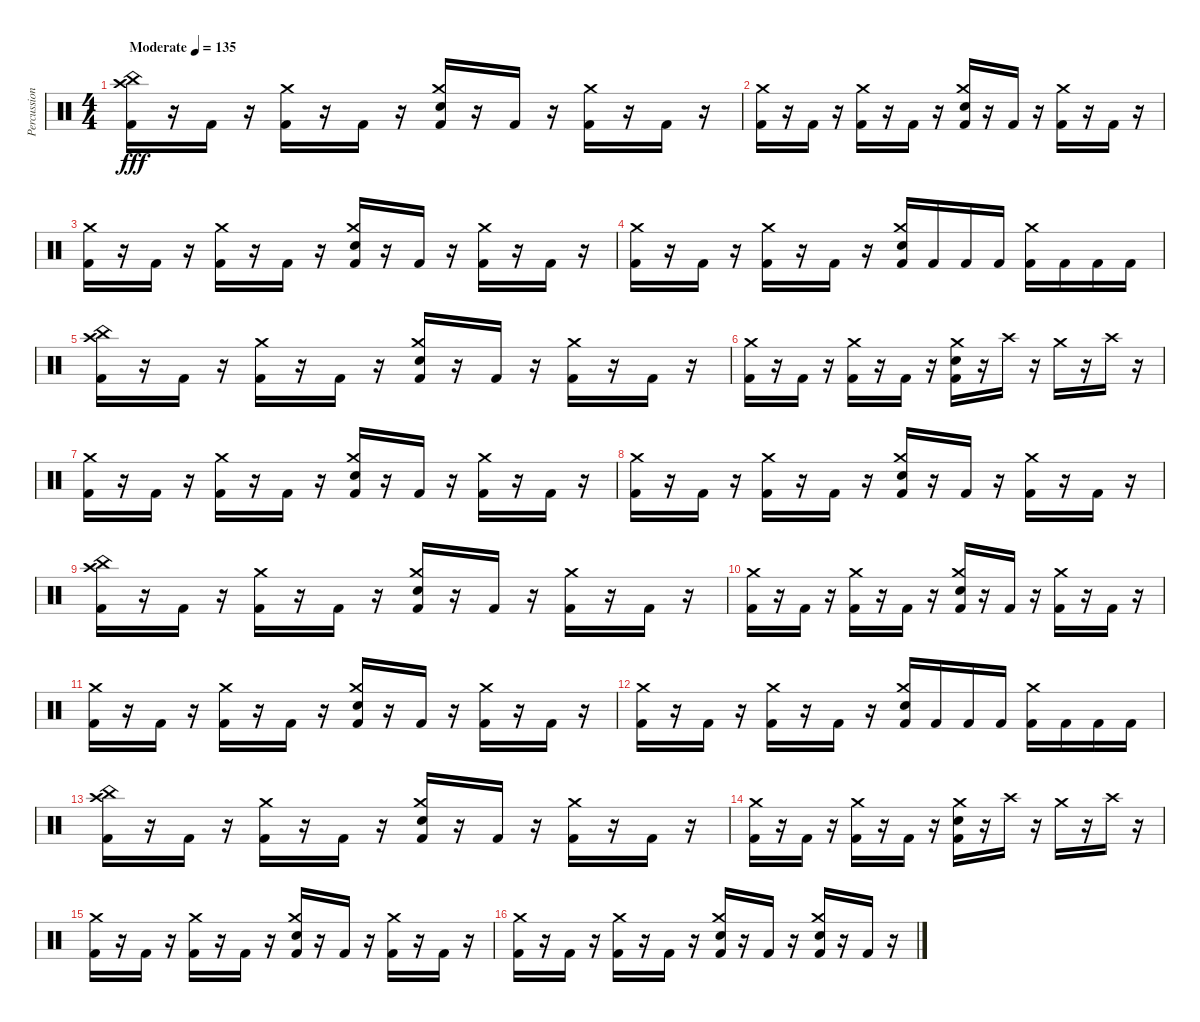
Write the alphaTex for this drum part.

\track ("Percussion" "Percussion") {instrument percussion}
\staff {score}
\articulation defaults
\ts (4 4)
\tempo (135 "Moderate")
\clef neutral
\ks c
("Crash high (hit)" "China (hit)" "Kick (hit) 2").16{dy fff} r.16 "Kick (hit) 2".16 r.16 ("Crash medium (hit)" "Kick (hit) 2").16 r.16 "Kick (hit) 2".16 r.16 ("Crash medium (hit)" "Snare (hit) 2" "Kick (hit) 2").16 r.16 "Kick (hit) 2".16 r.16 ("Crash medium (hit)" "Kick (hit) 2").16 r.16 "Kick (hit) 2".16 r.16 |
("Crash medium (hit)" "Kick (hit) 2").16 r.16 "Kick (hit) 2".16 r.16 ("Crash medium (hit)" "Kick (hit) 2").16 r.16 "Kick (hit) 2".16 r.16 ("Crash medium (hit)" "Snare (hit) 2" "Kick (hit) 2").16 r.16 "Kick (hit) 2".16 r.16 ("Crash medium (hit)" "Kick (hit) 2").16 r.16 "Kick (hit) 2".16 r.16 |
("Crash medium (hit)" "Kick (hit) 2").16 r.16 "Kick (hit) 2".16 r.16 ("Crash medium (hit)" "Kick (hit) 2").16 r.16 "Kick (hit) 2".16 r.16 ("Crash medium (hit)" "Snare (hit) 2" "Kick (hit) 2").16 r.16 "Kick (hit) 2".16 r.16 ("Crash medium (hit)" "Kick (hit) 2").16 r.16 "Kick (hit) 2".16 r.16 |
("Crash medium (hit)" "Kick (hit) 2").16 r.16 "Kick (hit) 2".16 r.16 ("Crash medium (hit)" "Kick (hit) 2").16 r.16 "Kick (hit) 2".16 r.16 ("Crash medium (hit)" "Snare (hit) 2" "Kick (hit) 2").16 "Kick (hit) 2".16 "Kick (hit) 2".16 "Kick (hit) 2".16 ("Crash medium (hit)" "Kick (hit) 2").16 "Kick (hit) 2".16 "Kick (hit) 2".16 "Kick (hit) 2".16 |
("Crash high (hit)" "China (hit)" "Kick (hit) 2").16 r.16 "Kick (hit) 2".16 r.16 ("Crash medium (hit)" "Kick (hit) 2").16 r.16 "Kick (hit) 2".16 r.16 ("Crash medium (hit)" "Snare (hit) 2" "Kick (hit) 2").16 r.16 "Kick (hit) 2".16 r.16 ("Crash medium (hit)" "Kick (hit) 2").16 r.16 "Kick (hit) 2".16 r.16 |
("Crash medium (hit)" "Kick (hit) 2").16 r.16 "Kick (hit) 2".16 r.16 ("Crash medium (hit)" "Kick (hit) 2").16 r.16 "Kick (hit) 2".16 r.16 ("Crash medium (hit)" "Snare (hit) 2" "Kick (hit) 2").16 r.16 "Crash high (hit)".16 r.16 "Crash medium (hit)".16 r.16 "Crash high (hit)".16 r.16 |
("Crash medium (hit)" "Kick (hit) 2").16 r.16 "Kick (hit) 2".16 r.16 ("Crash medium (hit)" "Kick (hit) 2").16 r.16 "Kick (hit) 2".16 r.16 ("Crash medium (hit)" "Snare (hit) 2" "Kick (hit) 2").16 r.16 "Kick (hit) 2".16 r.16 ("Crash medium (hit)" "Kick (hit) 2").16 r.16 "Kick (hit) 2".16 r.16 |
("Crash medium (hit)" "Kick (hit) 2").16 r.16 "Kick (hit) 2".16 r.16 ("Crash medium (hit)" "Kick (hit) 2").16 r.16 "Kick (hit) 2".16 r.16 ("Crash medium (hit)" "Snare (hit) 2" "Kick (hit) 2").16 r.16 "Kick (hit) 2".16 r.16 ("Crash medium (hit)" "Kick (hit) 2").16 r.16 "Kick (hit) 2".16 r.16 |
("Crash high (hit)" "China (hit)" "Kick (hit) 2").16 r.16 "Kick (hit) 2".16 r.16 ("Crash medium (hit)" "Kick (hit) 2").16 r.16 "Kick (hit) 2".16 r.16 ("Crash medium (hit)" "Snare (hit) 2" "Kick (hit) 2").16 r.16 "Kick (hit) 2".16 r.16 ("Crash medium (hit)" "Kick (hit) 2").16 r.16 "Kick (hit) 2".16 r.16 |
("Crash medium (hit)" "Kick (hit) 2").16 r.16 "Kick (hit) 2".16 r.16 ("Crash medium (hit)" "Kick (hit) 2").16 r.16 "Kick (hit) 2".16 r.16 ("Crash medium (hit)" "Snare (hit) 2" "Kick (hit) 2").16 r.16 "Kick (hit) 2".16 r.16 ("Crash medium (hit)" "Kick (hit) 2").16 r.16 "Kick (hit) 2".16 r.16 |
("Crash medium (hit)" "Kick (hit) 2").16 r.16 "Kick (hit) 2".16 r.16 ("Crash medium (hit)" "Kick (hit) 2").16 r.16 "Kick (hit) 2".16 r.16 ("Crash medium (hit)" "Snare (hit) 2" "Kick (hit) 2").16 r.16 "Kick (hit) 2".16 r.16 ("Crash medium (hit)" "Kick (hit) 2").16 r.16 "Kick (hit) 2".16 r.16 |
("Crash medium (hit)" "Kick (hit) 2").16 r.16 "Kick (hit) 2".16 r.16 ("Crash medium (hit)" "Kick (hit) 2").16 r.16 "Kick (hit) 2".16 r.16 ("Crash medium (hit)" "Snare (hit) 2" "Kick (hit) 2").16 "Kick (hit) 2".16 "Kick (hit) 2".16 "Kick (hit) 2".16 ("Crash medium (hit)" "Kick (hit) 2").16 "Kick (hit) 2".16 "Kick (hit) 2".16 "Kick (hit) 2".16 |
("Crash high (hit)" "China (hit)" "Kick (hit) 2").16 r.16 "Kick (hit) 2".16 r.16 ("Crash medium (hit)" "Kick (hit) 2").16 r.16 "Kick (hit) 2".16 r.16 ("Crash medium (hit)" "Snare (hit) 2" "Kick (hit) 2").16 r.16 "Kick (hit) 2".16 r.16 ("Crash medium (hit)" "Kick (hit) 2").16 r.16 "Kick (hit) 2".16 r.16 |
("Crash medium (hit)" "Kick (hit) 2").16 r.16 "Kick (hit) 2".16 r.16 ("Crash medium (hit)" "Kick (hit) 2").16 r.16 "Kick (hit) 2".16 r.16 ("Crash medium (hit)" "Snare (hit) 2" "Kick (hit) 2").16 r.16 "Crash high (hit)".16 r.16 "Crash medium (hit)".16 r.16 "Crash high (hit)".16 r.16 |
("Crash medium (hit)" "Kick (hit) 2").16 r.16 "Kick (hit) 2".16 r.16 ("Crash medium (hit)" "Kick (hit) 2").16 r.16 "Kick (hit) 2".16 r.16 ("Crash medium (hit)" "Snare (hit) 2" "Kick (hit) 2").16 r.16 "Kick (hit) 2".16 r.16 ("Crash medium (hit)" "Kick (hit) 2").16 r.16 "Kick (hit) 2".16 r.16 |
("Crash medium (hit)" "Kick (hit) 2").16 r.16 "Kick (hit) 2".16 r.16 ("Crash medium (hit)" "Kick (hit) 2").16 r.16 "Kick (hit) 2".16 r.16 ("Crash medium (hit)" "Snare (hit) 2" "Kick (hit) 2").16 r.16 "Kick (hit) 2".16 r.16 ("Crash medium (hit)" "Snare (hit) 2" "Kick (hit) 2").16 r.16 "Kick (hit) 2".16 r.16
